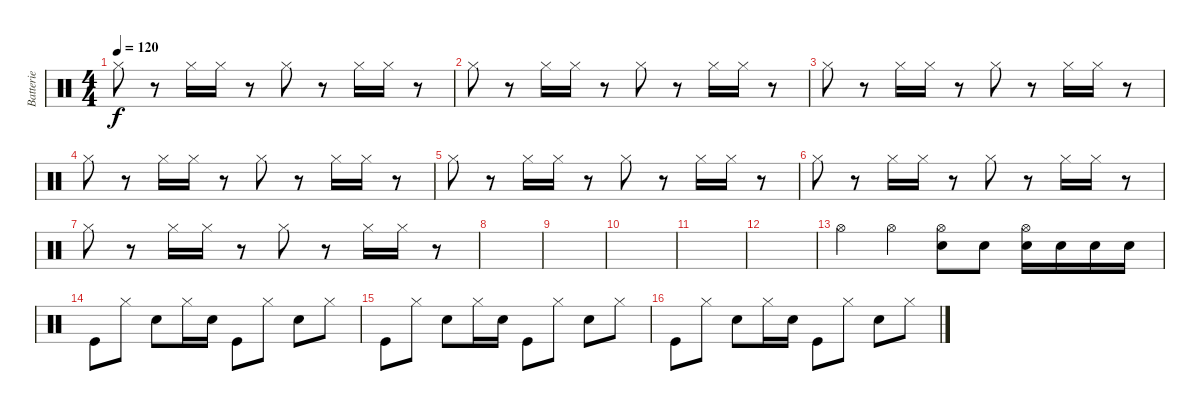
\track ("Batterie" "Batterie") {instrument percussion}
\staff {score}
\articulation defaults
\ts (4 4)
\tempo 120
\clef neutral
\ks c "Hi-Hat (closed)".8{dy f}
r.8 "Hi-Hat (closed)".16 "Hi-Hat (closed)".16 r.8 "Hi-Hat (closed)".8 r.8 "Hi-Hat (closed)".16 "Hi-Hat (closed)".16 r.8 |
"Hi-Hat (closed)".8 r.8 "Hi-Hat (closed)".16 "Hi-Hat (closed)".16 r.8 "Hi-Hat (closed)".8 r.8 "Hi-Hat (closed)".16 "Hi-Hat (closed)".16 r.8 |
"Hi-Hat (closed)".8 r.8 "Hi-Hat (closed)".16 "Hi-Hat (closed)".16 r.8 "Hi-Hat (closed)".8 r.8 "Hi-Hat (closed)".16 "Hi-Hat (closed)".16 r.8 |
"Hi-Hat (closed)".8 r.8 "Hi-Hat (closed)".16 "Hi-Hat (closed)".16 r.8 "Hi-Hat (closed)".8 r.8 "Hi-Hat (closed)".16 "Hi-Hat (closed)".16 r.8 |
"Hi-Hat (closed)".8 r.8 "Hi-Hat (closed)".16 "Hi-Hat (closed)".16 r.8 "Hi-Hat (closed)".8 r.8 "Hi-Hat (closed)".16 "Hi-Hat (closed)".16 r.8 |
"Hi-Hat (closed)".8 r.8 "Hi-Hat (closed)".16 "Hi-Hat (closed)".16 r.8 "Hi-Hat (closed)".8 r.8 "Hi-Hat (closed)".16 "Hi-Hat (closed)".16 r.8 |
"Hi-Hat (closed)".8 r.8 "Hi-Hat (closed)".16 "Hi-Hat (closed)".16 r.8 "Hi-Hat (closed)".8 r.8 "Hi-Hat (closed)".16 "Hi-Hat (closed)".16 r.8 |
|
|
|
|
|
"Hi-Hat (open)".4 "Hi-Hat (open)".4 ("Hi-Hat (open)" "Snare (hit) 2").8 "Snare (hit) 2".8 ("Snare (hit) 2" "Hi-Hat (open)").16 "Snare (hit) 2".16 "Snare (hit) 2".16 "Snare (hit) 2".16 |
"Kick (hit)".8 "Hi-Hat (closed)".8 "Snare (hit) 2".8 "Hi-Hat (closed)".16 "Snare (hit) 2".16 "Kick (hit)".8 "Hi-Hat (closed)".8 "Snare (hit) 2".8 "Hi-Hat (closed)".8 |
"Kick (hit)".8 "Hi-Hat (closed)".8 "Snare (hit) 2".8 "Hi-Hat (closed)".16 "Snare (hit) 2".16 "Kick (hit)".8 "Hi-Hat (closed)".8 "Snare (hit) 2".8 "Hi-Hat (closed)".8 |
"Kick (hit)".8 "Hi-Hat (closed)".8 "Snare (hit) 2".8 "Hi-Hat (closed)".16 "Snare (hit) 2".16 "Kick (hit)".8 "Hi-Hat (closed)".8 "Snare (hit) 2".8 "Hi-Hat (closed)".8
